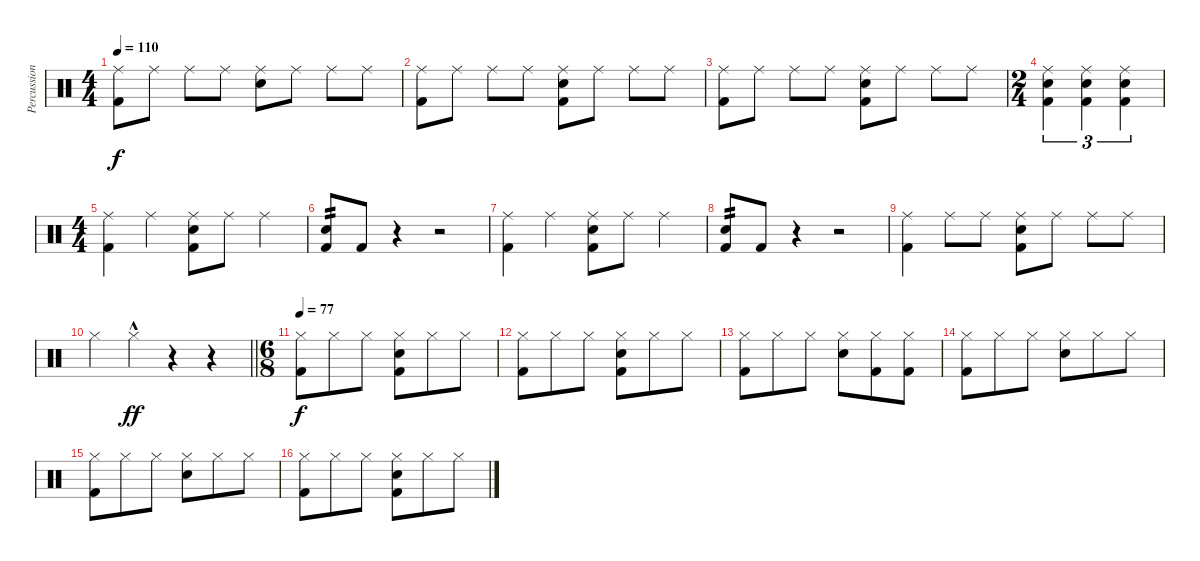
\track ("Percussion" "Percussion") {instrument percussion}
\staff {score}
\articulation defaults
\ts (4 4)
\tempo 110
\clef neutral
\ks c
("Ride (middle)" "Kick (hit) 2").8{dy f} "Ride (middle)".8 "Ride (middle)".8 "Ride (middle)".8 ("Ride (middle)" "Snare (hit) 2").8 "Ride (middle)".8 "Ride (middle)".8 "Ride (middle)".8 |
("Ride (middle)" "Kick (hit) 2").8 "Ride (middle)".8 "Ride (middle)".8 "Ride (middle)".8 ("Ride (middle)" "Snare (hit) 2" "Kick (hit) 2").8 "Ride (middle)".8 "Ride (middle)".8 "Ride (middle)".8 |
("Ride (middle)" "Kick (hit) 2").8 "Ride (middle)".8 "Ride (middle)".8 "Ride (middle)".8 ("Ride (middle)" "Snare (hit) 2" "Kick (hit) 2").8 "Ride (middle)".8 "Ride (middle)".8 "Ride (middle)".8 |
\ts (2 4)
("Ride (middle)" "Kick (hit) 2" "Snare (hit) 2").4{tu (3 2)} ("Ride (middle)" "Kick (hit) 2" "Snare (hit) 2").4{tu (3 2)} ("Ride (middle)" "Kick (hit) 2" "Snare (hit) 2").4{tu (3 2)} |
\ts (4 4)
("Ride (middle)" "Kick (hit) 2").4 "Ride (middle)".4 ("Ride (middle)" "Snare (hit) 2" "Kick (hit) 2").8 "Ride (middle)".8 "Ride (middle)".4 |
("Snare (hit) 2" "Kick (hit) 2").8{tp 2} "Kick (hit) 2".8 r.4 r.2 |
("Ride (middle)" "Kick (hit) 2").4 "Ride (middle)".4 ("Ride (middle)" "Snare (hit) 2" "Kick (hit) 2").8 "Ride (middle)".8 "Ride (middle)".4 |
("Snare (hit) 2" "Kick (hit) 2").8{tp 2} "Kick (hit) 2".8 r.4 r.2 |
("Ride (middle)" "Kick (hit) 2").4 "Ride (middle)".8 "Ride (middle)".8 ("Ride (middle)" "Snare (hit) 2" "Kick (hit) 2").8 "Ride (middle)".8 "Ride (middle)".8 "Ride (middle)".8 |
\barLineRight lightlight "Hi-Hat (closed)".4 "Hi-Hat (closed)"{hac}.4{dy ff}
r.4 r.4 |
\ts (6 8)
\tempo 77
("Hi-Hat (closed)" "Kick (hit) 2").8{dy f} "Hi-Hat (closed)".8 "Hi-Hat (closed)".8 ("Hi-Hat (closed)" "Snare (hit) 2" "Kick (hit) 2").8 "Hi-Hat (closed)".8 "Hi-Hat (closed)".8 |
("Hi-Hat (closed)" "Kick (hit) 2").8 "Hi-Hat (closed)".8 "Hi-Hat (closed)".8 ("Hi-Hat (closed)" "Snare (hit) 2" "Kick (hit) 2").8 "Hi-Hat (closed)".8 "Hi-Hat (closed)".8 |
("Hi-Hat (closed)" "Kick (hit) 2").8 "Hi-Hat (closed)".8 "Hi-Hat (closed)".8 ("Hi-Hat (closed)" "Snare (hit) 2").8 ("Hi-Hat (closed)" "Kick (hit) 2").8 ("Hi-Hat (closed)" "Kick (hit) 2").8 |
("Hi-Hat (closed)" "Kick (hit) 2").8 "Hi-Hat (closed)".8 "Hi-Hat (closed)".8 ("Hi-Hat (closed)" "Snare (hit) 2").8 "Hi-Hat (closed)".8 "Hi-Hat (closed)".8 |
("Hi-Hat (closed)" "Kick (hit) 2").8 "Hi-Hat (closed)".8 "Hi-Hat (closed)".8 ("Hi-Hat (closed)" "Snare (hit) 2").8 "Hi-Hat (closed)".8 "Hi-Hat (closed)".8 |
("Hi-Hat (closed)" "Kick (hit) 2").8 "Hi-Hat (closed)".8 "Hi-Hat (closed)".8 ("Hi-Hat (closed)" "Snare (hit) 2" "Kick (hit) 2").8 "Hi-Hat (closed)".8 "Hi-Hat (closed)".8
